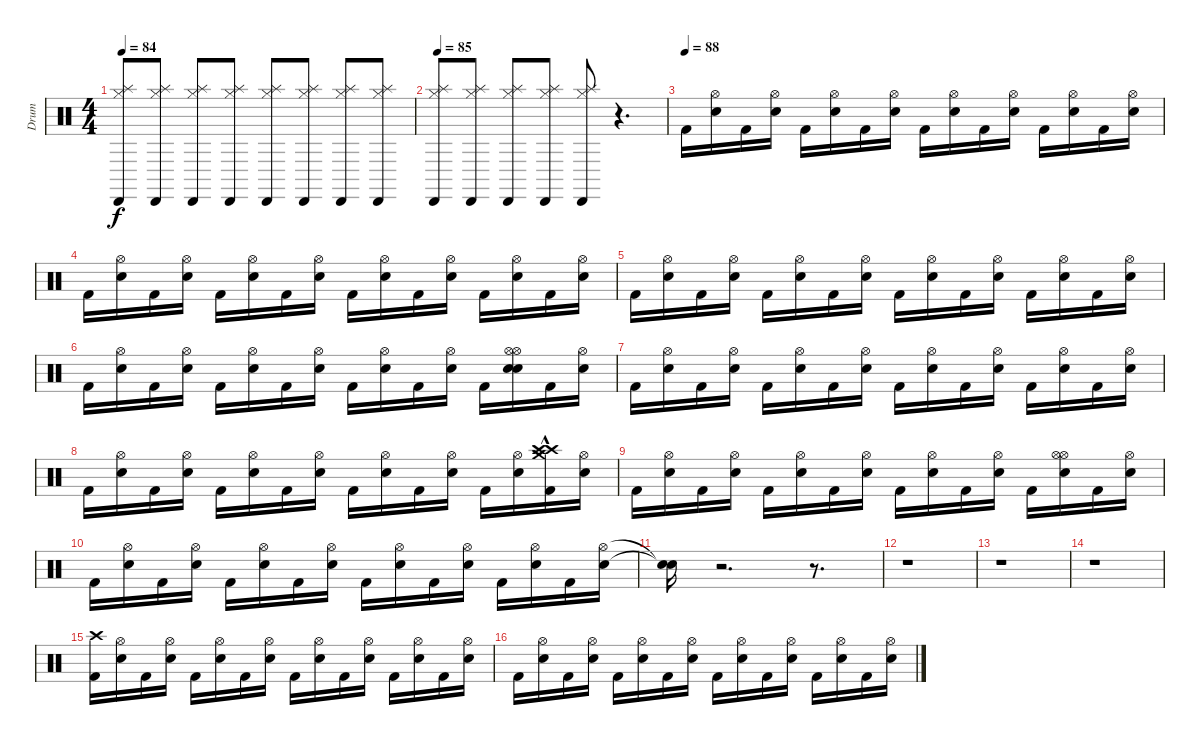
\track ("Drum" "Drum") {instrument percussion}
\staff {score}
\articulation defaults
\ts (4 4)
\tempo 84
\clef neutral
\ks c
("Cabasa (hit)" "Splash (hit)" "Hi-Hat (closed)").8{dy f} ("Cabasa (hit)" "Hi-Hat (closed)" "Splash (hit)").8 ("Splash (hit)" "Cabasa (hit)" "Hi-Hat (closed)").8 ("Hi-Hat (closed)" "Cabasa (hit)" "Splash (hit)").8 ("Hi-Hat (closed)" "Splash (hit)" "Cabasa (hit)").8 ("Cabasa (hit)" "Splash (hit)" "Hi-Hat (closed)").8 ("Splash (hit)" "Cabasa (hit)" "Hi-Hat (closed)").8 ("Splash (hit)" "Hi-Hat (closed)" "Cabasa (hit)").8 |
\tempo 85
("Splash (hit)" "Cabasa (hit)" "Hi-Hat (closed)").8 ("Hi-Hat (closed)" "Splash (hit)" "Cabasa (hit)").8 ("Cabasa (hit)" "Splash (hit)" "Hi-Hat (closed)").8 ("Cabasa (hit)" "Hi-Hat (closed)" "Splash (hit)").8 ("Splash (hit)" "Hi-Hat (closed)" "Cabasa (hit)").8 r.4{d} |
\tempo (88)
"Kick (hit) 2".16 ("Snare (hit) 2" "Hi-Hat (open)").16 "Kick (hit) 2".16 ("Snare (hit) 2" "Hi-Hat (open)").16 "Kick (hit) 2".16 ("Hi-Hat (open)" "Snare (hit) 2").16 "Kick (hit) 2".16 ("Snare (hit) 2" "Hi-Hat (open)").16 "Kick (hit) 2".16 ("Hi-Hat (open)" "Snare (hit) 2").16 "Kick (hit) 2".16 ("Hi-Hat (open)" "Snare (hit) 2").16 "Kick (hit) 2".16 ("Hi-Hat (open)" "Snare (hit) 2").16 "Kick (hit) 2".16 ("Hi-Hat (open)" "Snare (hit) 2").16 |
"Kick (hit) 2".16 ("Snare (hit) 2" "Hi-Hat (open)").16 "Kick (hit) 2".16 ("Snare (hit) 2" "Hi-Hat (open)").16 "Kick (hit) 2".16 ("Hi-Hat (open)" "Snare (hit) 2").16 "Kick (hit) 2".16 ("Snare (hit) 2" "Hi-Hat (open)").16 "Kick (hit) 2".16 ("Hi-Hat (open)" "Snare (hit) 2").16 "Kick (hit) 2".16 ("Snare (hit) 2" "Hi-Hat (open)").16 "Kick (hit) 2".16 ("Hi-Hat (open)" "Snare (hit) 2").16 "Kick (hit) 2".16 ("Snare (hit) 2" "Hi-Hat (open)").16 |
"Kick (hit) 2".16 ("Snare (hit) 2" "Hi-Hat (open)").16 "Kick (hit) 2".16 ("Snare (hit) 2" "Hi-Hat (open)").16 "Kick (hit) 2".16 ("Snare (hit) 2" "Hi-Hat (open)").16 "Kick (hit) 2".16 ("Hi-Hat (open)" "Snare (hit) 2").16 "Kick (hit) 2".16 ("Hi-Hat (open)" "Snare (hit) 2").16 "Kick (hit) 2".16 ("Hi-Hat (open)" "Snare (hit) 2").16 "Kick (hit) 2".16 ("Hi-Hat (open)" "Snare (hit) 2").16 "Kick (hit) 2".16 ("Hi-Hat (open)" "Snare (hit) 2").16 |
"Kick (hit) 2".16 ("Snare (hit) 2" "Hi-Hat (open)").16 "Kick (hit) 2".16 ("Hi-Hat (open)" "Snare (hit) 2").16 "Kick (hit) 2".16 ("Snare (hit) 2" "Hi-Hat (open)").16 "Kick (hit) 2".16 ("Hi-Hat (open)" "Snare (hit) 2").16 "Kick (hit) 2".16 ("Hi-Hat (open)" "Snare (hit) 2").16 "Kick (hit) 2".16 ("Hi-Hat (open)" "Snare (hit) 2").16 "Kick (hit) 2".16 ("Hi-Hat (open)" "Hi-Hat (open)" "Snare (hit) 2" "Snare (hit) 2").16 "Kick (hit) 2".16 ("Hi-Hat (open)" "Snare (hit) 2").16 |
"Kick (hit) 2".16 ("Hi-Hat (open)" "Snare (hit) 2").16 "Kick (hit) 2".16 ("Snare (hit) 2" "Hi-Hat (open)").16 "Kick (hit) 2".16 ("Snare (hit) 2" "Hi-Hat (open)").16 "Kick (hit) 2".16 ("Snare (hit) 2" "Hi-Hat (open)").16 "Kick (hit) 2".16 ("Hi-Hat (open)" "Snare (hit) 2").16 "Kick (hit) 2".16 ("Snare (hit) 2" "Hi-Hat (open)").16 "Kick (hit) 2".16 ("Snare (hit) 2" "Hi-Hat (open)").16 "Kick (hit) 2".16 ("Hi-Hat (open)" "Snare (hit) 2").16 |
"Kick (hit) 2".16 ("Snare (hit) 2" "Hi-Hat (open)").16 "Kick (hit) 2".16 ("Hi-Hat (open)" "Snare (hit) 2").16 "Kick (hit) 2".16 ("Hi-Hat (open)" "Snare (hit) 2").16 "Kick (hit) 2".16 ("Hi-Hat (open)" "Snare (hit) 2").16 "Kick (hit) 2".16 ("Snare (hit) 2" "Hi-Hat (open)").16 "Kick (hit) 2".16 ("Hi-Hat (open)" "Snare (hit) 2").16 "Kick (hit) 2".16 ("Snare (hit) 2" "Hi-Hat (open)").16 ("Crash high (hit)"{hac} "Kick (hit) 2" "Crash medium (hit)"{hac} "Crash high (hit)"{hac}).16 ("Snare (hit) 2" "Hi-Hat (open)").16 |
"Kick (hit) 2".16 ("Hi-Hat (open)" "Snare (hit) 2").16 "Kick (hit) 2".16 ("Snare (hit) 2" "Hi-Hat (open)").16 "Kick (hit) 2".16 ("Snare (hit) 2" "Hi-Hat (open)").16 "Kick (hit) 2".16 ("Hi-Hat (open)" "Snare (hit) 2").16 "Kick (hit) 2".16 ("Hi-Hat (open)" "Snare (hit) 2").16 "Kick (hit) 2".16 ("Hi-Hat (open)" "Snare (hit) 2").16 "Kick (hit) 2".16 ("Hi-Hat (open)" "Hi-Hat (open)" "Snare (hit) 2").16 "Kick (hit) 2".16 ("Snare (hit) 2" "Hi-Hat (open)").16 |
"Kick (hit) 2".16 ("Hi-Hat (open)" "Snare (hit) 2").16 "Kick (hit) 2".16 ("Snare (hit) 2" "Hi-Hat (open)").16 "Kick (hit) 2".16 ("Hi-Hat (open)" "Snare (hit) 2").16 "Kick (hit) 2".16 ("Snare (hit) 2" "Hi-Hat (open)").16 "Kick (hit) 2".16 ("Hi-Hat (open)" "Snare (hit) 2").16 "Kick (hit) 2".16 ("Hi-Hat (open)" "Snare (hit) 2").16 "Kick (hit) 2".16 ("Hi-Hat (open)" "Snare (hit) 2").16 "Kick (hit) 2".16 ("Hi-Hat (open)" "Snare (hit) 2").16 |
("Snare (hit)"{t} "Snare (hit)"{t}).16 r.2{d} r.8{d} |
r.1 |
r.1 |
r.1 |
("Crash high (hit)" "Kick (hit) 2").16 ("Hi-Hat (open)" "Snare (hit) 2").16 "Kick (hit) 2".16 ("Hi-Hat (open)" "Snare (hit) 2").16 "Kick (hit) 2".16 ("Snare (hit) 2" "Hi-Hat (open)").16 "Kick (hit) 2".16 ("Snare (hit) 2" "Hi-Hat (open)").16 "Kick (hit) 2".16 ("Hi-Hat (open)" "Snare (hit) 2").16 "Kick (hit) 2".16 ("Snare (hit) 2" "Hi-Hat (open)").16 "Kick (hit) 2".16 ("Hi-Hat (open)" "Snare (hit) 2").16 "Kick (hit) 2".16 ("Hi-Hat (open)" "Snare (hit) 2").16 |
"Kick (hit) 2".16 ("Hi-Hat (open)" "Snare (hit) 2").16 "Kick (hit) 2".16 ("Hi-Hat (open)" "Snare (hit) 2").16 "Kick (hit) 2".16 ("Hi-Hat (open)" "Snare (hit) 2").16 "Kick (hit) 2".16 ("Snare (hit) 2" "Hi-Hat (open)").16 "Kick (hit) 2".16 ("Snare (hit) 2" "Hi-Hat (open)").16 "Kick (hit) 2".16 ("Snare (hit) 2" "Hi-Hat (open)").16 "Kick (hit) 2".16 ("Snare (hit) 2" "Hi-Hat (open)").16 "Kick (hit) 2".16 ("Snare (hit) 2" "Hi-Hat (open)").16
